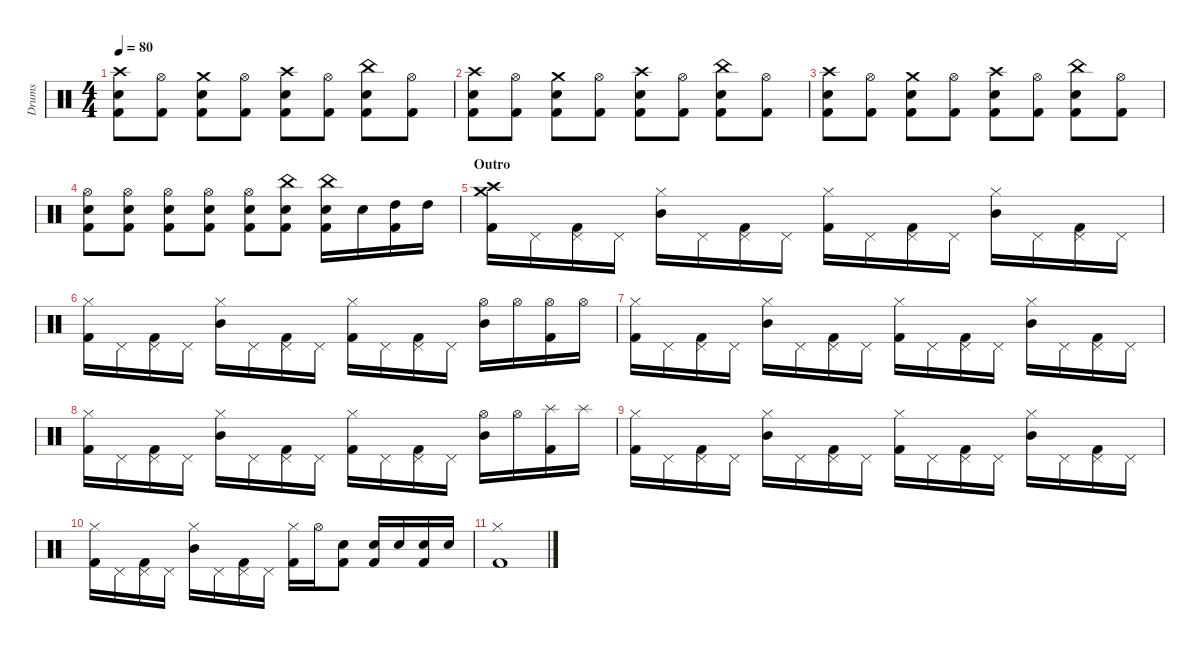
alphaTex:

\hideDynamics
\bracketExtendMode nobrackets
\otherSystemsTrackNameOrientation horizontal
\track ("Drumkit" "Drums") {instrument percussion}
\staff {score}
\articulation defaults
\ts (4 4)
\tempo 80
\clef neutral
\ks c
("Crash high (hit)" "Snare (hit) 2" "Kick (hit) 2").8{dy f beam Down} ("Hi-Hat (open)" "Kick (hit) 2").8{beam Down} ("Crash medium (hit)" "Snare (hit) 2" "Kick (hit) 2").8{beam Down} ("Hi-Hat (open)" "Kick (hit) 2").8{beam Down} ("Crash high (hit)" "Snare (hit) 2" "Kick (hit) 2").8{beam Down} ("Hi-Hat (open)" "Kick (hit) 2").8{beam Down} ("Snare (hit) 2" "China (hit)" "Kick (hit) 2").8{beam Down} ("Hi-Hat (open)" "Kick (hit) 2").8{beam Down} |
("Crash high (hit)" "Snare (hit) 2" "Kick (hit) 2").8{beam Down} ("Hi-Hat (open)" "Kick (hit) 2").8{beam Down} ("Crash medium (hit)" "Snare (hit) 2" "Kick (hit) 2").8{beam Down} ("Hi-Hat (open)" "Kick (hit) 2").8{beam Down} ("Crash high (hit)" "Snare (hit) 2" "Kick (hit) 2").8{beam Down} ("Hi-Hat (open)" "Kick (hit) 2").8{beam Down} ("Snare (hit) 2" "China (hit)" "Kick (hit) 2").8{beam Down} ("Hi-Hat (open)" "Kick (hit) 2").8{beam Down} |
("Crash high (hit)" "Snare (hit) 2" "Kick (hit) 2").8{beam Down} ("Hi-Hat (open)" "Kick (hit) 2").8{beam Down} ("Crash medium (hit)" "Snare (hit) 2" "Kick (hit) 2").8{beam Down} ("Hi-Hat (open)" "Kick (hit) 2").8{beam Down} ("Crash high (hit)" "Snare (hit) 2" "Kick (hit) 2").8{beam Down} ("Hi-Hat (open)" "Kick (hit) 2").8{beam Down} ("Snare (hit) 2" "China (hit)" "Kick (hit) 2").8{beam Down} ("Hi-Hat (open)" "Kick (hit) 2").8{beam Down} |
("Snare (hit) 2" "Hi-Hat (open)" "Kick (hit) 2").8{beam Down} ("Snare (hit) 2" "Hi-Hat (open)" "Kick (hit) 2").8{beam Down} ("Snare (hit) 2" "Hi-Hat (open)" "Kick (hit) 2").8{beam Down} ("Snare (hit) 2" "Hi-Hat (open)" "Kick (hit) 2").8{beam Down} ("Snare (hit) 2" "Hi-Hat (open)" "Kick (hit) 2").8{beam Down} ("Snare (hit) 2" "China (hit)" "Kick (hit) 2").8{beam Down} ("Snare (hit) 2" "China (hit)" "Kick (hit) 2").16{beam Down} "Snare (hit) 2".16{beam Down} ("High Tom (hit)" "Kick (hit) 2").16{beam Down} "High Tom (hit)".16{beam Down} |
\section ("" "Outro")
("Crash high (hit)" "Crash medium (hit)" "Kick (hit) 2").16{beam Down} "Pedal Hi-Hat (hit)".16{beam Down} ("Pedal Hi-Hat (hit)" "Kick (hit) 2").16{beam Down} "Pedal Hi-Hat (hit)".16{beam Down} ("Mid Tom (hit)" "Hi-Hat (closed)").16{beam Down} "Pedal Hi-Hat (hit)".16{beam Down} ("Pedal Hi-Hat (hit)" "Kick (hit) 2").16{beam Down} "Pedal Hi-Hat (hit)".16{beam Down} ("Hi-Hat (closed)" "Kick (hit) 2").16{beam Down} "Pedal Hi-Hat (hit)".16{beam Down} ("Pedal Hi-Hat (hit)" "Kick (hit) 2").16{beam Down} "Pedal Hi-Hat (hit)".16{beam Down} ("Mid Tom (hit)" "Hi-Hat (closed)").16{beam Down} "Pedal Hi-Hat (hit)".16{beam Down} ("Pedal Hi-Hat (hit)" "Kick (hit) 2").16{beam Down} "Pedal Hi-Hat (hit)".16{beam Down} |
("Hi-Hat (closed)" "Kick (hit) 2").16{beam Down} "Pedal Hi-Hat (hit)".16{beam Down} ("Pedal Hi-Hat (hit)" "Kick (hit) 2").16{beam Down} "Pedal Hi-Hat (hit)".16{beam Down} ("Mid Tom (hit)" "Hi-Hat (closed)").16{beam Down} "Pedal Hi-Hat (hit)".16{beam Down} ("Pedal Hi-Hat (hit)" "Kick (hit) 2").16{beam Down} "Pedal Hi-Hat (hit)".16{beam Down} ("Hi-Hat (closed)" "Kick (hit) 2").16{beam Down} "Pedal Hi-Hat (hit)".16{beam Down} ("Pedal Hi-Hat (hit)" "Kick (hit) 2").16{beam Down} "Pedal Hi-Hat (hit)".16{beam Down} ("Mid Tom (hit)" "Hi-Hat (open)").16{beam Down} "Hi-Hat (open)".16{beam Down} ("Hi-Hat (open)" "Kick (hit) 2").16{beam Down} "Hi-Hat (open)".16{beam Down} |
("Hi-Hat (closed)" "Kick (hit) 2").16{beam Down} "Pedal Hi-Hat (hit)".16{beam Down} ("Pedal Hi-Hat (hit)" "Kick (hit) 2").16{beam Down} "Pedal Hi-Hat (hit)".16{beam Down} ("Mid Tom (hit)" "Hi-Hat (closed)").16{beam Down} "Pedal Hi-Hat (hit)".16{beam Down} ("Pedal Hi-Hat (hit)" "Kick (hit) 2").16{beam Down} "Pedal Hi-Hat (hit)".16{beam Down} ("Hi-Hat (closed)" "Kick (hit) 2").16{beam Down} "Pedal Hi-Hat (hit)".16{beam Down} ("Pedal Hi-Hat (hit)" "Kick (hit) 2").16{beam Down} "Pedal Hi-Hat (hit)".16{beam Down} ("Mid Tom (hit)" "Hi-Hat (closed)").16{beam Down} "Pedal Hi-Hat (hit)".16{beam Down} ("Pedal Hi-Hat (hit)" "Kick (hit) 2").16{beam Down} "Pedal Hi-Hat (hit)".16{beam Down} |
("Hi-Hat (closed)" "Kick (hit) 2").16{beam Down} "Pedal Hi-Hat (hit)".16{beam Down} ("Pedal Hi-Hat (hit)" "Kick (hit) 2").16{beam Down} "Pedal Hi-Hat (hit)".16{beam Down} ("Mid Tom (hit)" "Hi-Hat (closed)").16{beam Down} "Pedal Hi-Hat (hit)".16{beam Down} ("Pedal Hi-Hat (hit)" "Kick (hit) 2").16{beam Down} "Pedal Hi-Hat (hit)".16{beam Down} ("Hi-Hat (closed)" "Kick (hit) 2").16{beam Down} "Pedal Hi-Hat (hit)".16{beam Down} ("Pedal Hi-Hat (hit)" "Kick (hit) 2").16{beam Down} "Pedal Hi-Hat (hit)".16{beam Down} ("Mid Tom (hit)" "Hi-Hat (open)").16{beam Down} "Hi-Hat (open)".16{beam Down} ("Splash (hit)" "Kick (hit) 2").16{beam Down} "Splash (hit)".16{beam Down} |
("Hi-Hat (closed)" "Kick (hit) 2").16{beam Down} "Pedal Hi-Hat (hit)".16{beam Down} ("Pedal Hi-Hat (hit)" "Kick (hit) 2").16{beam Down} "Pedal Hi-Hat (hit)".16{beam Down} ("Mid Tom (hit)" "Hi-Hat (closed)").16{beam Down} "Pedal Hi-Hat (hit)".16{beam Down} ("Pedal Hi-Hat (hit)" "Kick (hit) 2").16{beam Down} "Pedal Hi-Hat (hit)".16{beam Down} ("Hi-Hat (closed)" "Kick (hit) 2").16{beam Down} "Pedal Hi-Hat (hit)".16{beam Down} ("Pedal Hi-Hat (hit)" "Kick (hit) 2").16{beam Down} "Pedal Hi-Hat (hit)".16{beam Down} ("Mid Tom (hit)" "Hi-Hat (closed)").16{beam Down} "Pedal Hi-Hat (hit)".16{beam Down} ("Pedal Hi-Hat (hit)" "Kick (hit) 2").16{beam Down} "Pedal Hi-Hat (hit)".16{beam Down} |
("Hi-Hat (closed)" "Kick (hit) 2").16{beam Down} "Pedal Hi-Hat (hit)".16{beam Down} ("Pedal Hi-Hat (hit)" "Kick (hit) 2").16{beam Down} "Pedal Hi-Hat (hit)".16{beam Down} ("Mid Tom (hit)" "Hi-Hat (closed)").16{beam Down} "Pedal Hi-Hat (hit)".16{beam Down} ("Pedal Hi-Hat (hit)" "Kick (hit) 2").16{beam Down} "Pedal Hi-Hat (hit)".16{beam Down} ("Hi-Hat (closed)" "Kick (hit) 2").16{beam Down} "Hi-Hat (open)".16{beam Down} ("Snare (hit) 2" "Kick (hit) 2").8{beam Down} ("Snare (hit) 2" "Kick (hit) 2").16{beam Up} "Snare (hit) 2".16{beam Up} ("Snare (hit) 2" "Kick (hit) 2").16{beam Up} "Snare (hit) 2".16{beam Up} |
("Hi-Hat (closed)" "Kick (hit) 2").1{beam Down}
